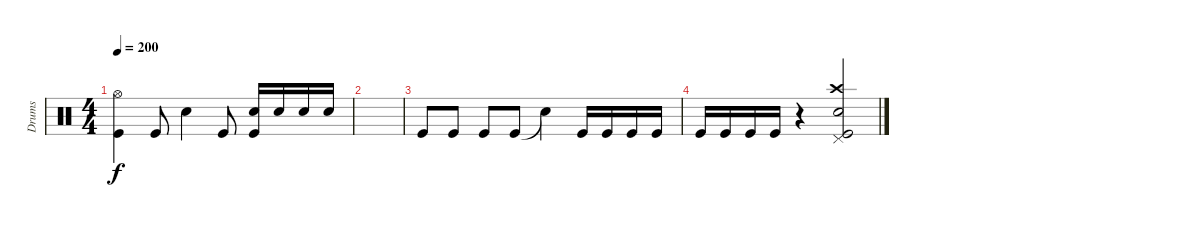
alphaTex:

\track ("Drums" "Drums") {instrument percussion}
\staff {score}
\articulation defaults
\ts (4 4)
\tempo 200
\clef neutral
\ks c
("Hi-Hat (open)" "Kick (hit)").4{dy f} "Kick (hit)".8 "Snare (hit) 2".4 "Kick (hit)".8 ("Snare (hit) 2" "Kick (hit)").16 "Snare (hit) 2".16 "Snare (hit) 2".16 "Snare (hit) 2".16 |
|
"Kick (hit)".8 "Kick (hit)".8 "Kick (hit)".8 "Kick (hit)".8 "Snare (hit)"{t}.4 "Kick (hit)".16 "Kick (hit)".16 "Kick (hit)".16 "Kick (hit)".16 |
"Kick (hit)".16 "Kick (hit)".16 "Kick (hit)".16 "Kick (hit)".16 r.4 ("Crash high (hit)" "Snare (hit) 2" "Pedal Hi-Hat (hit)" "Kick (hit)").2
